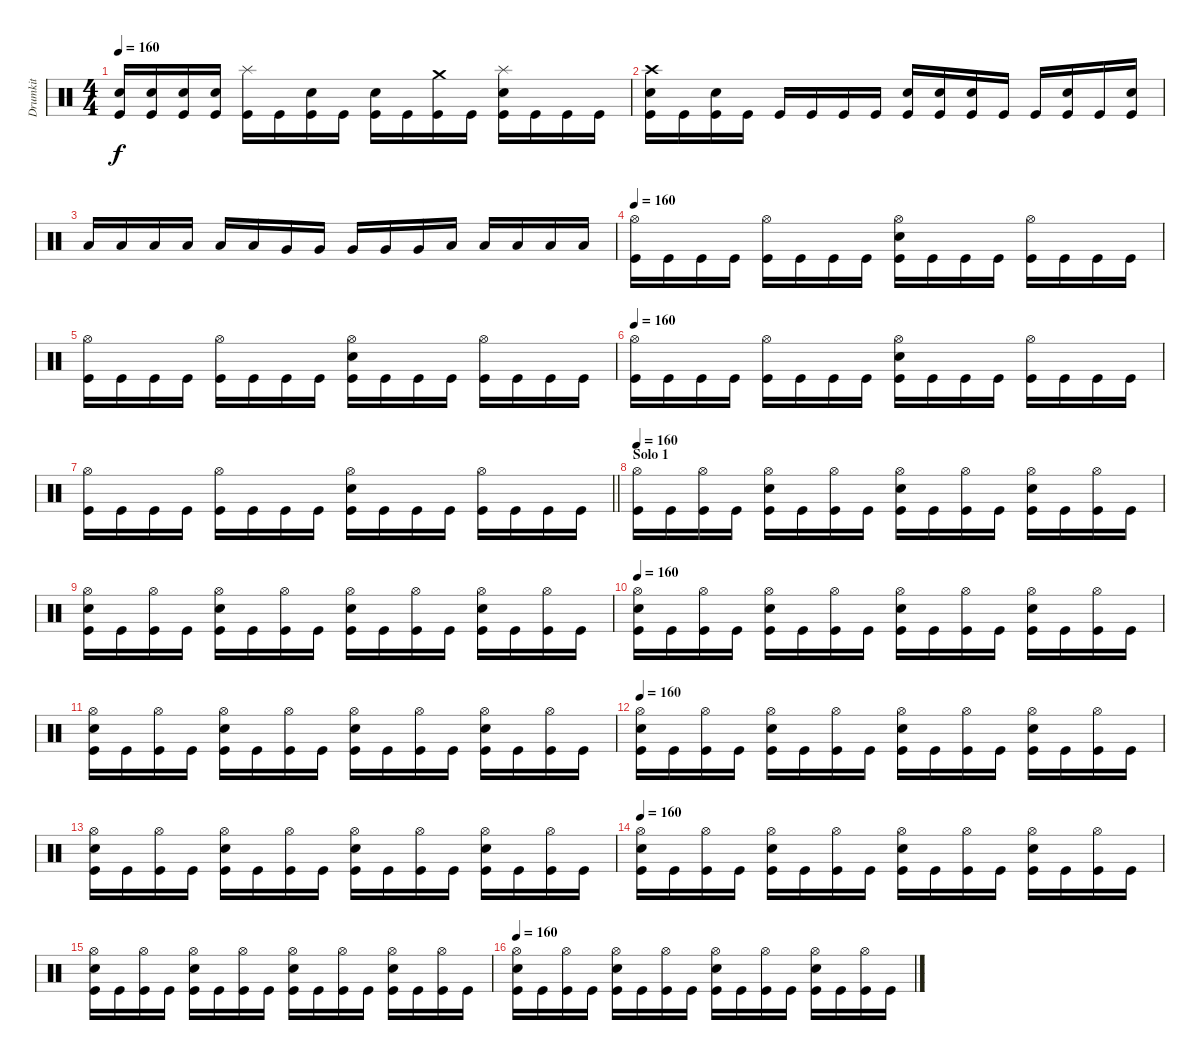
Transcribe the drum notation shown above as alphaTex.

\track ("Drumkit" "Drumkit") {instrument percussion}
\staff {score}
\articulation defaults
\ts (4 4)
\tempo 160
\clef neutral
\ks c
("Snare (hit) 2" "Kick (hit)").16{dy f} ("Snare (hit) 2" "Kick (hit)").16 ("Snare (hit) 2" "Kick (hit)").16 ("Snare (hit) 2" "Kick (hit)").16 ("Splash (hit)" "Kick (hit)").16 "Kick (hit)".16 ("Snare (hit) 2" "Kick (hit)").16 "Kick (hit)".16 ("Snare (hit) 2" "Kick (hit)").16 "Kick (hit)".16 ("Crash medium (hit)" "Kick (hit)").16 "Kick (hit)".16 ("Splash (hit)" "Snare (hit) 2" "Kick (hit)").16 "Kick (hit)".16 "Kick (hit)".16 "Kick (hit)".16 |
("Crash high (hit)" "Snare (hit) 2" "Kick (hit)").16 "Kick (hit)".16 ("Snare (hit) 2" "Kick (hit)").16 "Kick (hit)".16 "Kick (hit)".16 "Kick (hit)".16 "Kick (hit)".16 "Kick (hit)".16 ("Snare (hit) 2" "Kick (hit)").16 ("Snare (hit) 2" "Kick (hit)").16 ("Snare (hit) 2" "Kick (hit)").16 "Kick (hit)".16 "Kick (hit)".16 ("Snare (hit) 2" "Kick (hit)").16 "Kick (hit)".16 ("Snare (hit) 2" "Kick (hit)").16 |
"Low Tom (hit)".16 "Low Tom (hit)".16 "Low Tom (hit)".16 "Low Tom (hit)".16 "Low Tom (hit)".16 "Low Tom (hit)".16 "Very Low Tom (hit)".16 "Very Low Tom (hit)".16 "Very Low Tom (hit)".16 "Very Low Tom (hit)".16 "Very Low Tom (hit)".16 "Low Floor Tom (hit)".16 "Low Floor Tom (hit)".16 "Low Floor Tom (hit)".16 "Low Floor Tom (hit)".16 "Low Floor Tom (hit)".16 |
\tempo 160
("Hi-Hat (open)" "Kick (hit)").16 "Kick (hit)".16 "Kick (hit)".16 "Kick (hit)".16 ("Hi-Hat (open)" "Kick (hit)").16 "Kick (hit)".16 "Kick (hit)".16 "Kick (hit)".16 ("Hi-Hat (open)" "Snare (hit) 2" "Kick (hit)").16 "Kick (hit)".16 "Kick (hit)".16 "Kick (hit)".16 ("Hi-Hat (open)" "Kick (hit)").16 "Kick (hit)".16 "Kick (hit)".16 "Kick (hit)".16 |
("Hi-Hat (open)" "Kick (hit)").16 "Kick (hit)".16 "Kick (hit)".16 "Kick (hit)".16 ("Hi-Hat (open)" "Kick (hit)").16 "Kick (hit)".16 "Kick (hit)".16 "Kick (hit)".16 ("Hi-Hat (open)" "Snare (hit) 2" "Kick (hit)").16 "Kick (hit)".16 "Kick (hit)".16 "Kick (hit)".16 ("Hi-Hat (open)" "Kick (hit)").16 "Kick (hit)".16 "Kick (hit)".16 "Kick (hit)".16 |
\tempo 160
("Hi-Hat (open)" "Kick (hit)").16 "Kick (hit)".16 "Kick (hit)".16 "Kick (hit)".16 ("Hi-Hat (open)" "Kick (hit)").16 "Kick (hit)".16 "Kick (hit)".16 "Kick (hit)".16 ("Hi-Hat (open)" "Snare (hit) 2" "Kick (hit)").16 "Kick (hit)".16 "Kick (hit)".16 "Kick (hit)".16 ("Hi-Hat (open)" "Kick (hit)").16 "Kick (hit)".16 "Kick (hit)".16 "Kick (hit)".16 |
\barLineRight lightlight
("Hi-Hat (open)" "Kick (hit)").16 "Kick (hit)".16 "Kick (hit)".16 "Kick (hit)".16 ("Hi-Hat (open)" "Kick (hit)").16 "Kick (hit)".16 "Kick (hit)".16 "Kick (hit)".16 ("Hi-Hat (open)" "Snare (hit) 2" "Kick (hit)").16 "Kick (hit)".16 "Kick (hit)".16 "Kick (hit)".16 ("Hi-Hat (open)" "Kick (hit)").16 "Kick (hit)".16 "Kick (hit)".16 "Kick (hit)".16 |
\section ("" "Solo 1")
\tempo 160
("Hi-Hat (open)" "Kick (hit)").16 "Kick (hit)".16 ("Hi-Hat (open)" "Kick (hit)").16 "Kick (hit)".16 ("Hi-Hat (open)" "Snare (hit) 2" "Kick (hit)").16 "Kick (hit)".16 ("Hi-Hat (open)" "Kick (hit)").16 "Kick (hit)".16 ("Hi-Hat (open)" "Snare (hit) 2" "Kick (hit)").16 "Kick (hit)".16 ("Hi-Hat (open)" "Kick (hit)").16 "Kick (hit)".16 ("Hi-Hat (open)" "Snare (hit) 2" "Kick (hit)").16 "Kick (hit)".16 ("Hi-Hat (open)" "Kick (hit)").16 "Kick (hit)".16 |
("Hi-Hat (open)" "Snare (hit) 2" "Kick (hit)").16 "Kick (hit)".16 ("Hi-Hat (open)" "Kick (hit)").16 "Kick (hit)".16 ("Hi-Hat (open)" "Snare (hit) 2" "Kick (hit)").16 "Kick (hit)".16 ("Hi-Hat (open)" "Kick (hit)").16 "Kick (hit)".16 ("Hi-Hat (open)" "Snare (hit) 2" "Kick (hit)").16 "Kick (hit)".16 ("Hi-Hat (open)" "Kick (hit)").16 "Kick (hit)".16 ("Hi-Hat (open)" "Snare (hit) 2" "Kick (hit)").16 "Kick (hit)".16 ("Hi-Hat (open)" "Kick (hit)").16 "Kick (hit)".16 |
\tempo 160
("Hi-Hat (open)" "Snare (hit) 2" "Kick (hit)").16 "Kick (hit)".16 ("Hi-Hat (open)" "Kick (hit)").16 "Kick (hit)".16 ("Hi-Hat (open)" "Snare (hit) 2" "Kick (hit)").16 "Kick (hit)".16 ("Hi-Hat (open)" "Kick (hit)").16 "Kick (hit)".16 ("Hi-Hat (open)" "Snare (hit) 2" "Kick (hit)").16 "Kick (hit)".16 ("Hi-Hat (open)" "Kick (hit)").16 "Kick (hit)".16 ("Hi-Hat (open)" "Snare (hit) 2" "Kick (hit)").16 "Kick (hit)".16 ("Hi-Hat (open)" "Kick (hit)").16 "Kick (hit)".16 |
("Hi-Hat (open)" "Snare (hit) 2" "Kick (hit)").16 "Kick (hit)".16 ("Hi-Hat (open)" "Kick (hit)").16 "Kick (hit)".16 ("Hi-Hat (open)" "Snare (hit) 2" "Kick (hit)").16 "Kick (hit)".16 ("Hi-Hat (open)" "Kick (hit)").16 "Kick (hit)".16 ("Hi-Hat (open)" "Snare (hit) 2" "Kick (hit)").16 "Kick (hit)".16 ("Hi-Hat (open)" "Kick (hit)").16 "Kick (hit)".16 ("Hi-Hat (open)" "Snare (hit) 2" "Kick (hit)").16 "Kick (hit)".16 ("Hi-Hat (open)" "Kick (hit)").16 "Kick (hit)".16 |
\tempo 160
("Hi-Hat (open)" "Snare (hit) 2" "Kick (hit)").16 "Kick (hit)".16 ("Hi-Hat (open)" "Kick (hit)").16 "Kick (hit)".16 ("Hi-Hat (open)" "Snare (hit) 2" "Kick (hit)").16 "Kick (hit)".16 ("Hi-Hat (open)" "Kick (hit)").16 "Kick (hit)".16 ("Hi-Hat (open)" "Snare (hit) 2" "Kick (hit)").16 "Kick (hit)".16 ("Hi-Hat (open)" "Kick (hit)").16 "Kick (hit)".16 ("Hi-Hat (open)" "Snare (hit) 2" "Kick (hit)").16 "Kick (hit)".16 ("Hi-Hat (open)" "Kick (hit)").16 "Kick (hit)".16 |
("Hi-Hat (open)" "Snare (hit) 2" "Kick (hit)").16 "Kick (hit)".16 ("Hi-Hat (open)" "Kick (hit)").16 "Kick (hit)".16 ("Hi-Hat (open)" "Snare (hit) 2" "Kick (hit)").16 "Kick (hit)".16 ("Hi-Hat (open)" "Kick (hit)").16 "Kick (hit)".16 ("Hi-Hat (open)" "Snare (hit) 2" "Kick (hit)").16 "Kick (hit)".16 ("Hi-Hat (open)" "Kick (hit)").16 "Kick (hit)".16 ("Hi-Hat (open)" "Snare (hit) 2" "Kick (hit)").16 "Kick (hit)".16 ("Hi-Hat (open)" "Kick (hit)").16 "Kick (hit)".16 |
\tempo 160
("Hi-Hat (open)" "Snare (hit) 2" "Kick (hit)").16 "Kick (hit)".16 ("Hi-Hat (open)" "Kick (hit)").16 "Kick (hit)".16 ("Hi-Hat (open)" "Snare (hit) 2" "Kick (hit)").16 "Kick (hit)".16 ("Hi-Hat (open)" "Kick (hit)").16 "Kick (hit)".16 ("Hi-Hat (open)" "Snare (hit) 2" "Kick (hit)").16 "Kick (hit)".16 ("Hi-Hat (open)" "Kick (hit)").16 "Kick (hit)".16 ("Hi-Hat (open)" "Snare (hit) 2" "Kick (hit)").16 "Kick (hit)".16 ("Hi-Hat (open)" "Kick (hit)").16 "Kick (hit)".16 |
("Hi-Hat (open)" "Snare (hit) 2" "Kick (hit)").16 "Kick (hit)".16 ("Hi-Hat (open)" "Kick (hit)").16 "Kick (hit)".16 ("Hi-Hat (open)" "Snare (hit) 2" "Kick (hit)").16 "Kick (hit)".16 ("Hi-Hat (open)" "Kick (hit)").16 "Kick (hit)".16 ("Hi-Hat (open)" "Snare (hit) 2" "Kick (hit)").16 "Kick (hit)".16 ("Hi-Hat (open)" "Kick (hit)").16 "Kick (hit)".16 ("Hi-Hat (open)" "Snare (hit) 2" "Kick (hit)").16 "Kick (hit)".16 ("Hi-Hat (open)" "Kick (hit)").16 "Kick (hit)".16 |
\tempo 160
("Hi-Hat (open)" "Snare (hit) 2" "Kick (hit)").16 "Kick (hit)".16 ("Hi-Hat (open)" "Kick (hit)").16 "Kick (hit)".16 ("Hi-Hat (open)" "Snare (hit) 2" "Kick (hit)").16 "Kick (hit)".16 ("Hi-Hat (open)" "Kick (hit)").16 "Kick (hit)".16 ("Hi-Hat (open)" "Snare (hit) 2" "Kick (hit)").16 "Kick (hit)".16 ("Hi-Hat (open)" "Kick (hit)").16 "Kick (hit)".16 ("Hi-Hat (open)" "Snare (hit) 2" "Kick (hit)").16 "Kick (hit)".16 ("Hi-Hat (open)" "Kick (hit)").16 "Kick (hit)".16
